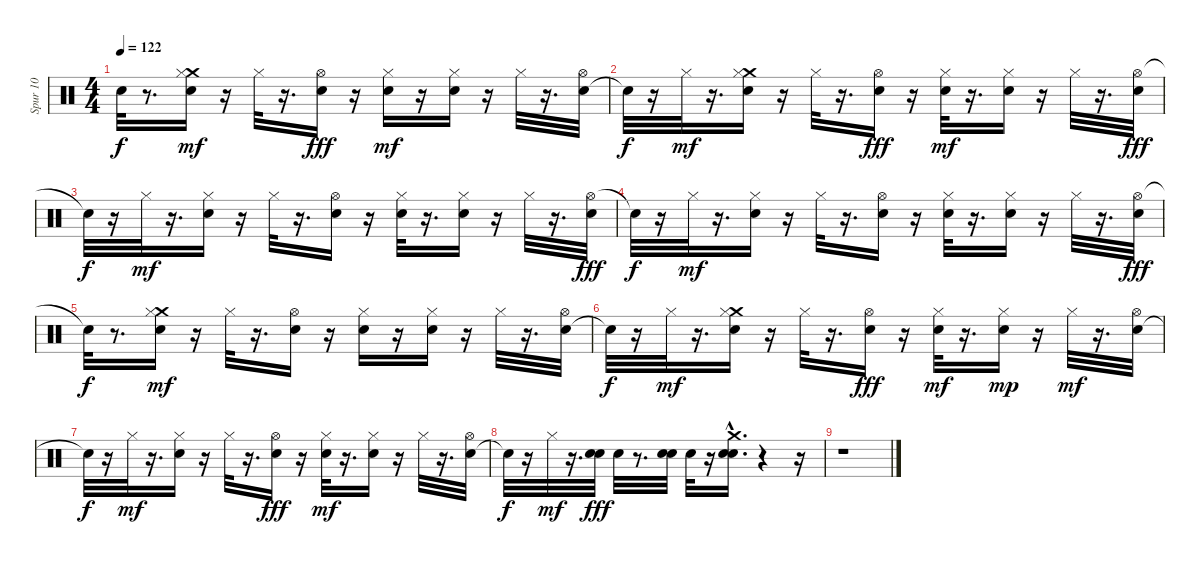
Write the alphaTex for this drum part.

\track ("Spur 10" "Spur 10") {instrument percussion}
\staff {score}
\articulation defaults
\ts (4 4)
\tempo 122
\clef neutral
\ks c "Snare (hit)"{t}.32{dy f}
r.8{d} ("Crash medium (hit)" "Snare (hit)" "Hi-Hat (closed)").16{dy mf} r.16 "Hi-Hat (closed)".32 r.16{d} ("Hi-Hat (open)" "Snare (hit) 2").16{dy fff} r.16 ("Snare (hit)" "Hi-Hat (closed)").16{dy mf} r.16 ("Snare (hit)" "Hi-Hat (closed)").16 r.16 "Hi-Hat (closed)".32 r.16{d} ("Snare (hit) 2" "Hi-Hat (open)").32 |
"Snare (hit)"{t}.32{dy f} r.16 "Hi-Hat (closed)".32{dy mf} r.16{d} ("Crash medium (hit)" "Snare (hit)" "Hi-Hat (closed)").16 r.16 "Hi-Hat (closed)".32 r.16{d} ("Hi-Hat (open)" "Snare (hit) 2").16{dy fff} r.16 ("Snare (hit)" "Hi-Hat (closed)").32{dy mf} r.16{d} ("Snare (hit)" "Hi-Hat (closed)").16 r.16 "Hi-Hat (closed)".32 r.16{d} ("Hi-Hat (open)" "Snare (hit) 2").32{dy fff} |
"Snare (hit)"{t}.32{dy f} r.16 "Hi-Hat (closed)".32{dy mf} r.16{d} ("Snare (hit)" "Hi-Hat (closed)").16 r.16 "Hi-Hat (closed)".32 r.16{d} ("Snare (hit) 2" "Hi-Hat (open)").16 r.16 ("Snare (hit)" "Hi-Hat (closed)").32 r.16{d} ("Snare (hit)" "Hi-Hat (closed)").16 r.16 "Hi-Hat (closed)".32 r.16{d} ("Hi-Hat (open)" "Snare (hit) 2").32{dy fff} |
"Snare (hit)"{t}.32{dy f} r.16 "Hi-Hat (closed)".32{dy mf} r.16{d} ("Snare (hit)" "Hi-Hat (closed)").16 r.16 "Hi-Hat (closed)".32 r.16{d} ("Snare (hit) 2" "Hi-Hat (open)").16 r.16 ("Snare (hit)" "Hi-Hat (closed)").32 r.16{d} ("Snare (hit)" "Hi-Hat (closed)").16 r.16 "Hi-Hat (closed)".32 r.16{d} ("Hi-Hat (open)" "Snare (hit) 2").32{dy fff} |
"Snare (hit)"{t}.32{dy f} r.8{d} ("Snare (hit)" "Crash medium (hit)" "Hi-Hat (closed)").16{dy mf} r.16 "Hi-Hat (closed)".32 r.16{d} ("Snare (hit) 2" "Hi-Hat (open)").16 r.16 ("Snare (hit)" "Hi-Hat (closed)").16 r.16 ("Snare (hit)" "Hi-Hat (closed)").16 r.16 "Hi-Hat (closed)".32 r.16{d} ("Snare (hit) 2" "Hi-Hat (open)").32 |
"Snare (hit)"{t}.32{dy f} r.16 "Hi-Hat (closed)".32{dy mf} r.16{d} ("Snare (hit)" "Crash medium (hit)" "Hi-Hat (closed)").16 r.16 "Hi-Hat (closed)".32 r.16{d} ("Hi-Hat (open)" "Snare (hit) 2").16{dy fff} r.16 ("Snare (hit)" "Hi-Hat (closed)").32{dy mf} r.16{d} ("Snare (hit)" "Hi-Hat (closed)").16{dy mp} r.16 "Hi-Hat (closed)".32{dy mf} r.16{d} ("Snare (hit) 2" "Hi-Hat (open)").32 |
"Snare (hit)"{t}.32{dy f} r.16 "Hi-Hat (closed)".32{dy mf} r.16{d} ("Snare (hit)" "Hi-Hat (closed)").16 r.16 "Hi-Hat (closed)".32 r.16{d} ("Hi-Hat (open)" "Snare (hit) 2").16{dy fff} r.16 ("Snare (hit)" "Hi-Hat (closed)").32{dy mf} r.16{d} ("Snare (hit)" "Hi-Hat (closed)").16 r.16 "Hi-Hat (closed)".32 r.16{d} ("Snare (hit) 2" "Hi-Hat (open)").32 |
"Snare (hit)"{t}.32{dy f} r.16 "Hi-Hat (closed)".32{dy mf} r.16{d} ("Snare (hit)" "Snare (hit) 2").32{dy fff} "Snare (hit) 2".32 r.8{d} ("Snare (hit) 2" "Snare (hit)").32 "Snare (hit) 2".32 r.16 ("Snare (hit) 2" "Crash medium (hit)"{hac} "Snare (hit)").16{d} r.4 r.16 |
r.1
